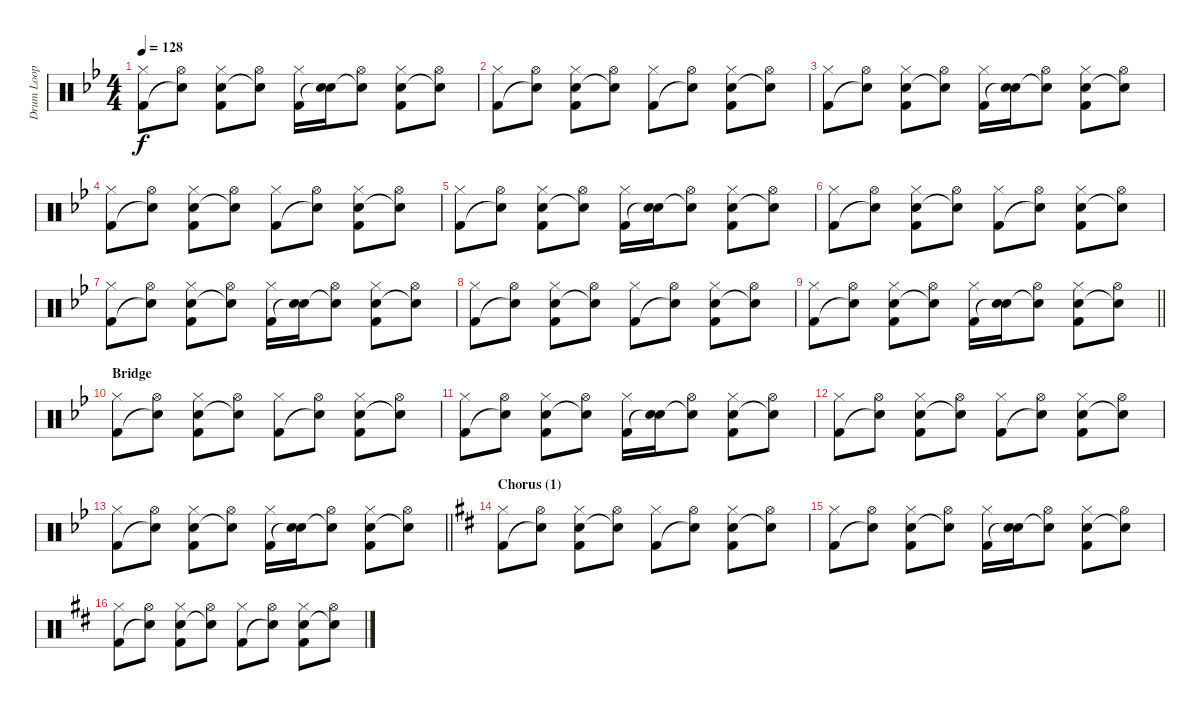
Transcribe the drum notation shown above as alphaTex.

\track ("Drum Loop" "Drum Loop") {instrument percussion}
\staff {score}
\articulation defaults
\ts (4 4)
\tempo 128
\clef neutral
\ks gminor
("Hi-Hat (closed)" "Kick (hit) 2").8{dy f} ("Hi-Hat (open)" "Snare (hit)"{t}).8 ("Hi-Hat (closed)" "Electric Snare (hit)" "Kick (hit) 2").8 ("Hi-Hat (open)" "Snare (hit)"{t}).8 ("Hi-Hat (closed)" "Kick (hit) 2").16 ("Electric Snare (hit)" "Snare (hit)"{t}).16 ("Hi-Hat (open)" "Snare (hit)"{t}).8 ("Hi-Hat (closed)" "Electric Snare (hit)" "Kick (hit) 2").8 ("Hi-Hat (open)" "Snare (hit)"{t}).8 |
("Hi-Hat (closed)" "Kick (hit) 2").8 ("Hi-Hat (open)" "Snare (hit)"{t}).8 ("Hi-Hat (closed)" "Electric Snare (hit)" "Kick (hit) 2").8 ("Hi-Hat (open)" "Snare (hit)"{t}).8 ("Hi-Hat (closed)" "Kick (hit) 2").8 ("Hi-Hat (open)" "Snare (hit)"{t}).8 ("Hi-Hat (closed)" "Electric Snare (hit)" "Kick (hit) 2").8 ("Hi-Hat (open)" "Snare (hit)"{t}).8 |
("Hi-Hat (closed)" "Kick (hit) 2").8 ("Hi-Hat (open)" "Snare (hit)"{t}).8 ("Hi-Hat (closed)" "Electric Snare (hit)" "Kick (hit) 2").8 ("Hi-Hat (open)" "Snare (hit)"{t}).8 ("Hi-Hat (closed)" "Kick (hit) 2").16 ("Electric Snare (hit)" "Snare (hit)"{t}).16 ("Hi-Hat (open)" "Snare (hit)"{t}).8 ("Hi-Hat (closed)" "Electric Snare (hit)" "Kick (hit) 2").8 ("Hi-Hat (open)" "Snare (hit)"{t}).8 |
("Hi-Hat (closed)" "Kick (hit) 2").8 ("Hi-Hat (open)" "Snare (hit)"{t}).8 ("Hi-Hat (closed)" "Electric Snare (hit)" "Kick (hit) 2").8 ("Hi-Hat (open)" "Snare (hit)"{t}).8 ("Hi-Hat (closed)" "Kick (hit) 2").8 ("Hi-Hat (open)" "Snare (hit)"{t}).8 ("Hi-Hat (closed)" "Electric Snare (hit)" "Kick (hit) 2").8 ("Hi-Hat (open)" "Snare (hit)"{t}).8 |
("Hi-Hat (closed)" "Kick (hit) 2").8 ("Hi-Hat (open)" "Snare (hit)"{t}).8 ("Hi-Hat (closed)" "Electric Snare (hit)" "Kick (hit) 2").8 ("Hi-Hat (open)" "Snare (hit)"{t}).8 ("Hi-Hat (closed)" "Kick (hit) 2").16 ("Electric Snare (hit)" "Snare (hit)"{t}).16 ("Hi-Hat (open)" "Snare (hit)"{t}).8 ("Hi-Hat (closed)" "Electric Snare (hit)" "Kick (hit) 2").8 ("Hi-Hat (open)" "Snare (hit)"{t}).8 |
("Hi-Hat (closed)" "Kick (hit) 2").8 ("Hi-Hat (open)" "Snare (hit)"{t}).8 ("Hi-Hat (closed)" "Electric Snare (hit)" "Kick (hit) 2").8 ("Hi-Hat (open)" "Snare (hit)"{t}).8 ("Hi-Hat (closed)" "Kick (hit) 2").8 ("Hi-Hat (open)" "Snare (hit)"{t}).8 ("Hi-Hat (closed)" "Electric Snare (hit)" "Kick (hit) 2").8 ("Hi-Hat (open)" "Snare (hit)"{t}).8 |
("Hi-Hat (closed)" "Kick (hit) 2").8 ("Hi-Hat (open)" "Snare (hit)"{t}).8 ("Hi-Hat (closed)" "Electric Snare (hit)" "Kick (hit) 2").8 ("Hi-Hat (open)" "Snare (hit)"{t}).8 ("Hi-Hat (closed)" "Kick (hit) 2").16 ("Electric Snare (hit)" "Snare (hit)"{t}).16 ("Hi-Hat (open)" "Snare (hit)"{t}).8 ("Hi-Hat (closed)" "Electric Snare (hit)" "Kick (hit) 2").8 ("Hi-Hat (open)" "Snare (hit)"{t}).8 |
("Hi-Hat (closed)" "Kick (hit) 2").8 ("Hi-Hat (open)" "Snare (hit)"{t}).8 ("Hi-Hat (closed)" "Electric Snare (hit)" "Kick (hit) 2").8 ("Hi-Hat (open)" "Snare (hit)"{t}).8 ("Hi-Hat (closed)" "Kick (hit) 2").8 ("Hi-Hat (open)" "Snare (hit)"{t}).8 ("Hi-Hat (closed)" "Electric Snare (hit)" "Kick (hit) 2").8 ("Hi-Hat (open)" "Snare (hit)"{t}).8 |
\barLineRight lightlight
("Hi-Hat (closed)" "Kick (hit) 2").8 ("Hi-Hat (open)" "Snare (hit)"{t}).8 ("Hi-Hat (closed)" "Electric Snare (hit)" "Kick (hit) 2").8 ("Hi-Hat (open)" "Snare (hit)"{t}).8 ("Hi-Hat (closed)" "Kick (hit) 2").16 ("Electric Snare (hit)" "Snare (hit)"{t}).16 ("Hi-Hat (open)" "Snare (hit)"{t}).8 ("Hi-Hat (closed)" "Electric Snare (hit)" "Kick (hit) 2").8 ("Hi-Hat (open)" "Snare (hit)"{t}).8 |
\section ("" "Bridge")
("Hi-Hat (closed)" "Kick (hit) 2").8 ("Hi-Hat (open)" "Snare (hit)"{t}).8 ("Hi-Hat (closed)" "Electric Snare (hit)" "Kick (hit) 2").8 ("Hi-Hat (open)" "Snare (hit)"{t}).8 ("Hi-Hat (closed)" "Kick (hit) 2").8 ("Hi-Hat (open)" "Snare (hit)"{t}).8 ("Hi-Hat (closed)" "Electric Snare (hit)" "Kick (hit) 2").8 ("Hi-Hat (open)" "Snare (hit)"{t}).8 |
("Hi-Hat (closed)" "Kick (hit) 2").8 ("Hi-Hat (open)" "Snare (hit)"{t}).8 ("Hi-Hat (closed)" "Electric Snare (hit)" "Kick (hit) 2").8 ("Hi-Hat (open)" "Snare (hit)"{t}).8 ("Hi-Hat (closed)" "Kick (hit) 2").16 ("Electric Snare (hit)" "Snare (hit)"{t}).16 ("Hi-Hat (open)" "Snare (hit)"{t}).8 ("Hi-Hat (closed)" "Electric Snare (hit)" "Kick (hit) 2").8 ("Hi-Hat (open)" "Snare (hit)"{t}).8 |
("Hi-Hat (closed)" "Kick (hit) 2").8 ("Hi-Hat (open)" "Snare (hit)"{t}).8 ("Hi-Hat (closed)" "Electric Snare (hit)" "Kick (hit) 2").8 ("Hi-Hat (open)" "Snare (hit)"{t}).8 ("Hi-Hat (closed)" "Kick (hit) 2").8 ("Hi-Hat (open)" "Snare (hit)"{t}).8 ("Hi-Hat (closed)" "Electric Snare (hit)" "Kick (hit) 2").8 ("Hi-Hat (open)" "Snare (hit)"{t}).8 |
\barLineRight lightlight
("Hi-Hat (closed)" "Kick (hit) 2").8 ("Hi-Hat (open)" "Snare (hit)"{t}).8 ("Hi-Hat (closed)" "Electric Snare (hit)" "Kick (hit) 2").8 ("Hi-Hat (open)" "Snare (hit)"{t}).8 ("Hi-Hat (closed)" "Kick (hit) 2").16 ("Electric Snare (hit)" "Snare (hit)"{t}).16 ("Hi-Hat (open)" "Snare (hit)"{t}).8 ("Hi-Hat (closed)" "Electric Snare (hit)" "Kick (hit) 2").8 ("Hi-Hat (open)" "Snare (hit)"{t}).8 |
\section ("" "Chorus (1)")
\ks d
("Hi-Hat (closed)" "Kick (hit) 2").8 ("Hi-Hat (open)" "Snare (hit)"{t}).8 ("Hi-Hat (closed)" "Electric Snare (hit)" "Kick (hit) 2").8 ("Hi-Hat (open)" "Snare (hit)"{t}).8 ("Hi-Hat (closed)" "Kick (hit) 2").8 ("Hi-Hat (open)" "Snare (hit)"{t}).8 ("Hi-Hat (closed)" "Electric Snare (hit)" "Kick (hit) 2").8 ("Hi-Hat (open)" "Snare (hit)"{t}).8 |
("Hi-Hat (closed)" "Kick (hit) 2").8 ("Hi-Hat (open)" "Snare (hit)"{t}).8 ("Hi-Hat (closed)" "Electric Snare (hit)" "Kick (hit) 2").8 ("Hi-Hat (open)" "Snare (hit)"{t}).8 ("Hi-Hat (closed)" "Kick (hit) 2").16 ("Electric Snare (hit)" "Snare (hit)"{t}).16 ("Hi-Hat (open)" "Snare (hit)"{t}).8 ("Hi-Hat (closed)" "Electric Snare (hit)" "Kick (hit) 2").8 ("Hi-Hat (open)" "Snare (hit)"{t}).8 |
("Hi-Hat (closed)" "Kick (hit) 2").8 ("Hi-Hat (open)" "Snare (hit)"{t}).8 ("Hi-Hat (closed)" "Electric Snare (hit)" "Kick (hit) 2").8 ("Hi-Hat (open)" "Snare (hit)"{t}).8 ("Hi-Hat (closed)" "Kick (hit) 2").8 ("Hi-Hat (open)" "Snare (hit)"{t}).8 ("Hi-Hat (closed)" "Electric Snare (hit)" "Kick (hit) 2").8 ("Hi-Hat (open)" "Snare (hit)"{t}).8
